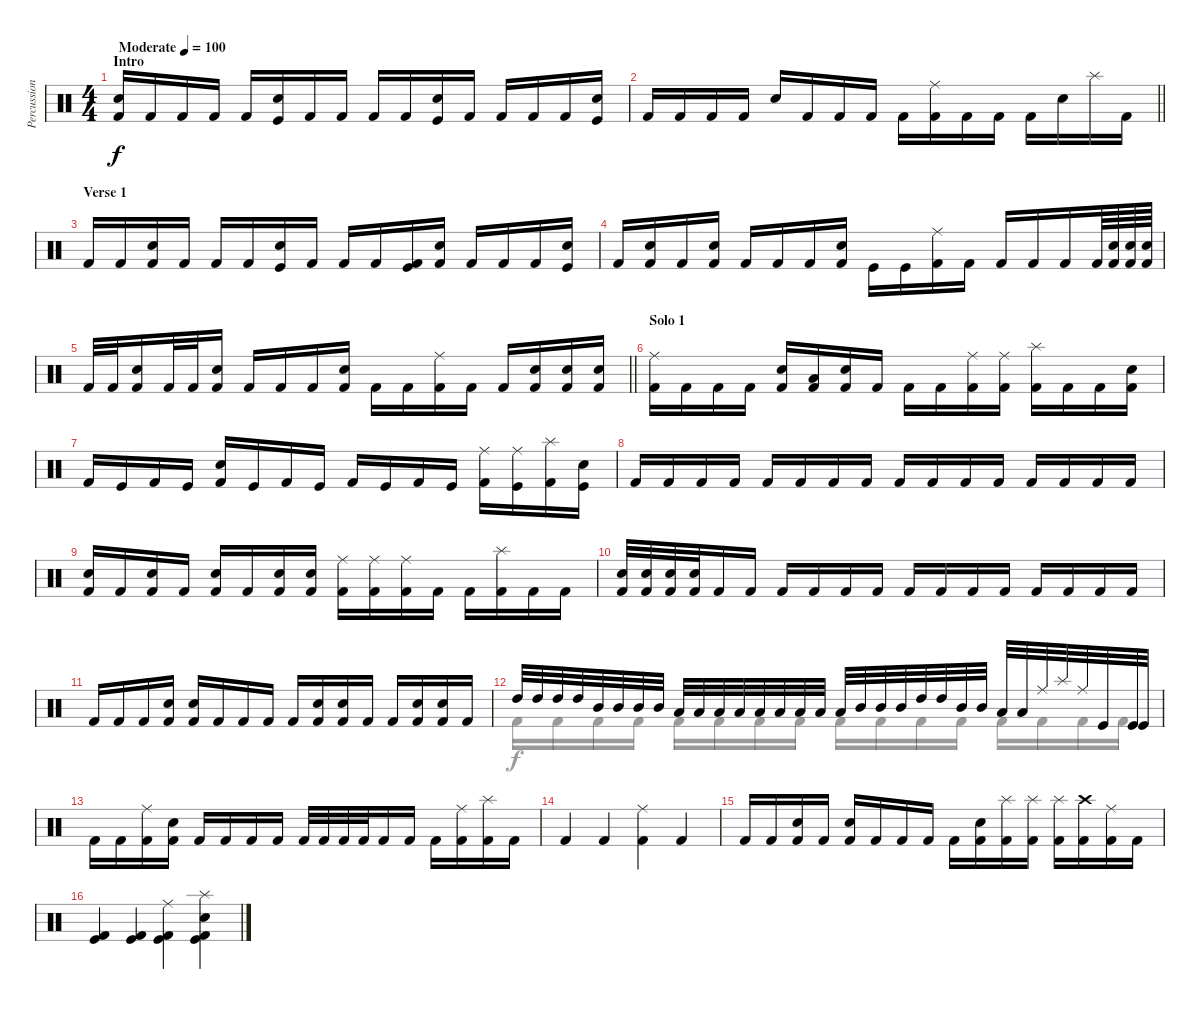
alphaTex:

\track ("Percussion" "Percussion") {instrument percussion}
\staff {score}
\articulation defaults
\voice
\ts (4 4)
\section ("" "Intro")
\tempo (100 "Moderate")
\clef neutral
\ks c
("Snare (hit) 2" "Kick (hit) 2").16{dy f} "Kick (hit) 2".16 "Kick (hit) 2".16 "Kick (hit) 2".16 "Kick (hit) 2".16 ("Snare (hit) 2" "Kick (hit)").16 "Kick (hit) 2".16 "Kick (hit) 2".16 "Kick (hit) 2".16 "Kick (hit) 2".16 ("Snare (hit) 2" "Kick (hit)").16 "Kick (hit) 2".16 "Kick (hit) 2".16 "Kick (hit) 2".16 "Kick (hit) 2".16 ("Snare (hit) 2" "Kick (hit)").16 |
\barLineRight lightlight "Kick (hit) 2".16 "Kick (hit) 2".16 "Kick (hit) 2".16 "Kick (hit) 2".16 "Snare (hit) 2".16 "Kick (hit) 2".16 "Kick (hit) 2".16 "Kick (hit) 2".16 "Kick (hit) 2".16
("Ride (middle)" "Kick (hit) 2").16 "Kick (hit) 2".16 "Kick (hit) 2".16 "Kick (hit) 2".16 "Snare (hit) 2".16 "Splash (hit)".16 "Kick (hit) 2".16 |
\section ("" "Verse 1")
"Kick (hit) 2".16 "Kick (hit) 2".16 ("Snare (hit) 2" "Kick (hit) 2").16 "Kick (hit) 2".16 "Kick (hit) 2".16 "Kick (hit) 2".16 ("Snare (hit) 2" "Kick (hit)").16 "Kick (hit) 2".16 "Kick (hit) 2".16 "Kick (hit) 2".16 ("Kick (hit)" "Kick (hit) 2").16 ("Snare (hit) 2" "Kick (hit) 2").16 "Kick (hit) 2".16 "Kick (hit) 2".16 "Kick (hit) 2".16 ("Snare (hit) 2" "Kick (hit)").16 |
"Kick (hit) 2".16 ("Snare (hit) 2" "Kick (hit) 2").16 "Kick (hit) 2".16 ("Snare (hit) 2" "Kick (hit) 2").16 "Kick (hit) 2".16 "Kick (hit) 2".16 "Kick (hit) 2".16 ("Snare (hit) 2" "Kick (hit) 2").16 "Kick (hit)".16 "Kick (hit)".16 ("Ride (middle)" "Kick (hit) 2").16 "Kick (hit) 2".16 "Kick (hit) 2".16 "Kick (hit) 2".16 "Kick (hit) 2".16 "Kick (hit) 2".64 ("Snare (hit) 2" "Kick (hit) 2").64 ("Snare (hit) 2" "Kick (hit) 2").64 ("Snare (hit) 2" "Kick (hit) 2").64 |
\barLineRight lightlight "Kick (hit) 2".32 "Kick (hit) 2".32
("Snare (hit) 2" "Kick (hit) 2").16 "Kick (hit) 2".32 "Kick (hit) 2".32 ("Snare (hit) 2" "Kick (hit) 2").16 "Kick (hit) 2".16 "Kick (hit) 2".16 "Kick (hit) 2".16 ("Kick (hit) 2" "Snare (hit) 2").16 "Kick (hit) 2".16 "Kick (hit) 2".16 ("Ride (middle)" "Kick (hit) 2").16 "Kick (hit) 2".16 "Kick (hit) 2".16 ("Snare (hit) 2" "Kick (hit) 2").16 ("Snare (hit) 2" "Kick (hit) 2").16 ("Snare (hit) 2" "Kick (hit) 2").16 |
\section ("" "Solo 1")
("Ride (middle)" "Kick (hit) 2").16 "Kick (hit) 2".16 "Kick (hit) 2".16 "Kick (hit) 2".16 ("Snare (hit) 2" "Kick (hit) 2").16 ("Low Tom (hit)" "Kick (hit) 2").16 ("Snare (hit) 2" "Kick (hit) 2").16 "Kick (hit) 2".16 "Kick (hit) 2".16 "Kick (hit) 2".16 ("Ride (middle)" "Kick (hit) 2").16 ("Ride (middle)" "Kick (hit) 2").16 ("Splash (hit)" "Kick (hit) 2").16 "Kick (hit) 2".16 "Kick (hit) 2".16 ("Snare (hit) 2" "Kick (hit) 2").16 |
"Kick (hit) 2".16 "Kick (hit)".16 "Kick (hit) 2".16 "Kick (hit)".16 ("Snare (hit) 2" "Kick (hit) 2").16 "Kick (hit)".16 "Kick (hit) 2".16 "Kick (hit)".16 "Kick (hit) 2".16 "Kick (hit)".16 "Kick (hit) 2".16 "Kick (hit)".16 ("Ride (middle)" "Kick (hit) 2").16 ("Ride (middle)" "Kick (hit)").16 ("Splash (hit)" "Kick (hit) 2").16 ("Snare (hit) 2" "Kick (hit)").16 |
"Kick (hit) 2".16 "Kick (hit) 2".16 "Kick (hit) 2".16 "Kick (hit) 2".16 "Kick (hit) 2".16 "Kick (hit) 2".16 "Kick (hit) 2".16 "Kick (hit) 2".16 "Kick (hit) 2".16 "Kick (hit) 2".16 "Kick (hit) 2".16 "Kick (hit) 2".16 "Kick (hit) 2".16 "Kick (hit) 2".16 "Kick (hit) 2".16 "Kick (hit) 2".16 |
("Snare (hit) 2" "Kick (hit) 2").16 "Kick (hit) 2".16 ("Snare (hit) 2" "Kick (hit) 2").16 "Kick (hit) 2".16 ("Snare (hit) 2" "Kick (hit) 2").16 "Kick (hit) 2".16 ("Snare (hit) 2" "Kick (hit) 2").16 ("Snare (hit) 2" "Kick (hit) 2").16 ("Ride (middle)" "Kick (hit) 2").16 ("Ride (middle)" "Kick (hit) 2").16 ("Ride (middle)" "Kick (hit) 2").16 "Kick (hit) 2".16 "Kick (hit) 2".16 ("Splash (hit)" "Kick (hit) 2").16 "Kick (hit) 2".16 "Kick (hit) 2".16 |
("Kick (hit) 2" "Snare (hit) 2").32 ("Kick (hit) 2" "Snare (hit) 2").32 ("Kick (hit) 2" "Snare (hit) 2").32 ("Kick (hit) 2" "Snare (hit) 2").32 "Kick (hit) 2".16 "Kick (hit) 2".16 "Kick (hit) 2".16 "Kick (hit) 2".16 "Kick (hit) 2".16 "Kick (hit) 2".16 "Kick (hit) 2".16 "Kick (hit) 2".16 "Kick (hit) 2".16 "Kick (hit) 2".16 "Kick (hit) 2".16 "Kick (hit) 2".16 "Kick (hit) 2".16 "Kick (hit) 2".16 |
"Kick (hit) 2".16 "Kick (hit) 2".16 "Kick (hit) 2".16 ("Snare (hit) 2" "Kick (hit) 2").16 ("Snare (hit) 2" "Kick (hit) 2").16 "Kick (hit) 2".16 "Kick (hit) 2".16 "Kick (hit) 2".16 "Kick (hit) 2".16 ("Snare (hit) 2" "Kick (hit) 2").16 ("Snare (hit) 2" "Kick (hit) 2").16 "Kick (hit) 2".16 "Kick (hit) 2".16 ("Snare (hit) 2" "Kick (hit) 2").16 ("Snare (hit) 2" "Kick (hit) 2").16 "Kick (hit) 2".16 |
"High Tom (hit)".32 "High Tom (hit)".32 "High Tom (hit)".32 "High Tom (hit)".32 "Mid Tom (hit)".32 "Mid Tom (hit)".32 "Mid Tom (hit)".32 "Mid Tom (hit)".32 "Low Tom (hit)".32 "Low Tom (hit)".32 "Low Tom (hit)".32 "Low Tom (hit)".32 "Low Tom (hit)".32 "Low Tom (hit)".32 "Low Tom (hit)".32 "Low Tom (hit)".32 "Low Tom (hit)".32 "Mid Tom (hit)".32 "Mid Tom (hit)".32 "Mid Tom (hit)".32 "High Tom (hit)".32 "High Tom (hit)".32 "Mid Tom (hit)".32 "Mid Tom (hit)".32 "Low Tom (hit)".32 "Low Tom (hit)".32 "Ride (middle)".32 "Splash (hit)".32 "Ride (middle)".32 "Kick (hit)".32 "Kick (hit)".32 "Kick (hit)".32 |
"Kick (hit) 2".16 "Kick (hit) 2".16 ("Ride (middle)" "Kick (hit) 2").16 ("Snare (hit) 2" "Kick (hit) 2").16 "Kick (hit) 2".16 "Kick (hit) 2".16 "Kick (hit) 2".16 "Kick (hit) 2".16 "Kick (hit) 2".32 "Kick (hit) 2".32 "Kick (hit) 2".32 "Kick (hit) 2".32 "Kick (hit) 2".16 "Kick (hit) 2".16 "Kick (hit) 2".16 ("Ride (middle)" "Kick (hit) 2").16 ("Splash (hit)" "Kick (hit) 2").16 "Kick (hit) 2".16 |
"Kick (hit) 2".4 "Kick (hit) 2".4 ("Ride (middle)" "Kick (hit) 2").4 "Kick (hit) 2".4 |
"Kick (hit) 2".16 "Kick (hit) 2".16 ("Snare (hit) 2" "Kick (hit) 2").16 "Kick (hit) 2".16 ("Snare (hit) 2" "Kick (hit) 2").16 "Kick (hit) 2".16 "Kick (hit) 2".16 "Kick (hit) 2".16 "Kick (hit) 2".16 ("Snare (hit) 2" "Kick (hit) 2").16 ("Splash (hit)" "Kick (hit) 2").16 ("Splash (hit)" "Kick (hit) 2").16 ("Splash (hit)" "Kick (hit) 2").16 ("Crash high (hit)" "Kick (hit) 2").16 ("Ride (middle)" "Kick (hit) 2").16 "Kick (hit) 2".16 |
("Kick (hit)" "Kick (hit) 2").4 ("Kick (hit) 2" "Kick (hit)").4 ("Ride (middle)" "Kick (hit) 2" "Kick (hit)").4 ("Splash (hit)" "Snare (hit) 2" "Kick (hit) 2" "Kick (hit)").4
\voice
\clef neutral
\ottava regular
\simile none
\ks c
|
\barLineRight lightlight
|
|
|
\barLineRight lightlight
|
|
|
|
|
|
|
"Kick (hit) 2".16 "Kick (hit) 2".16 "Kick (hit) 2".16 "Kick (hit) 2".16 "Kick (hit) 2".16 "Kick (hit) 2".16 "Kick (hit) 2".16 "Kick (hit) 2".16 "Kick (hit) 2".16 "Kick (hit) 2".16 "Kick (hit) 2".16 "Kick (hit) 2".16 "Kick (hit) 2".16 "Kick (hit) 2".16 "Kick (hit) 2".16 "Kick (hit) 2".16 |
|
|
|
